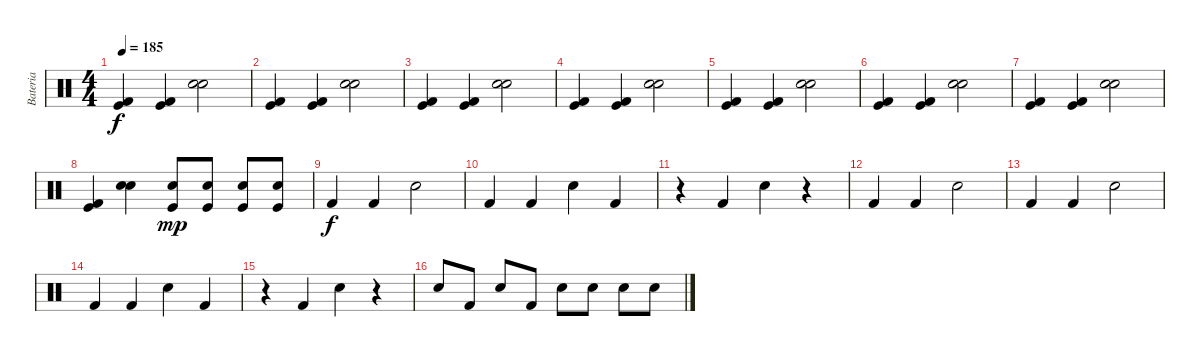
\track ("Bateria" "Bateria") {instrument percussion}
\staff {score}
\articulation defaults
\ts (4 4)
\tempo 185
\clef neutral
\ks c
("Kick (hit) 2" "Kick (hit)").4{dy f} ("Kick (hit) 2" "Kick (hit)").4 ("Electric Snare (hit)" "Snare (hit) 2").2 |
("Kick (hit) 2" "Kick (hit)").4 ("Kick (hit) 2" "Kick (hit)").4 ("Electric Snare (hit)" "Snare (hit) 2").2 |
("Kick (hit) 2" "Kick (hit)").4 ("Kick (hit) 2" "Kick (hit)").4 ("Electric Snare (hit)" "Snare (hit) 2").2 |
("Kick (hit) 2" "Kick (hit)").4 ("Kick (hit) 2" "Kick (hit)").4 ("Electric Snare (hit)" "Snare (hit) 2").2 |
("Kick (hit) 2" "Kick (hit)").4 ("Kick (hit) 2" "Kick (hit)").4 ("Electric Snare (hit)" "Snare (hit) 2").2 |
("Kick (hit) 2" "Kick (hit)").4 ("Kick (hit) 2" "Kick (hit)").4 ("Electric Snare (hit)" "Snare (hit) 2").2 |
("Kick (hit) 2" "Kick (hit)").4 ("Kick (hit) 2" "Kick (hit)").4 ("Electric Snare (hit)" "Snare (hit) 2").2 |
("Kick (hit)" "Kick (hit) 2").4 ("Electric Snare (hit)" "Snare (hit) 2").4 ("Kick (hit)" "Electric Snare (hit)").8{dy mp} ("Kick (hit)" "Electric Snare (hit)").8 ("Kick (hit)" "Electric Snare (hit)").8 ("Kick (hit)" "Electric Snare (hit)").8 |
"Kick (hit) 2".4{dy f} "Kick (hit) 2".4 "Electric Snare (hit)".2 |
"Kick (hit) 2".4 "Kick (hit) 2".4 "Electric Snare (hit)".4 "Kick (hit) 2".4 |
r.4 "Kick (hit) 2".4 "Electric Snare (hit)".4 r.4 |
"Kick (hit) 2".4 "Kick (hit) 2".4 "Electric Snare (hit)".2 |
"Kick (hit) 2".4 "Kick (hit) 2".4 "Electric Snare (hit)".2 |
"Kick (hit) 2".4 "Kick (hit) 2".4 "Electric Snare (hit)".4 "Kick (hit) 2".4 |
r.4 "Kick (hit) 2".4 "Electric Snare (hit)".4 r.4 |
"Electric Snare (hit)".8 "Kick (hit) 2".8 "Electric Snare (hit)".8 "Kick (hit) 2".8 "Electric Snare (hit)".8 "Electric Snare (hit)".8 "Electric Snare (hit)".8 "Electric Snare (hit)".8
